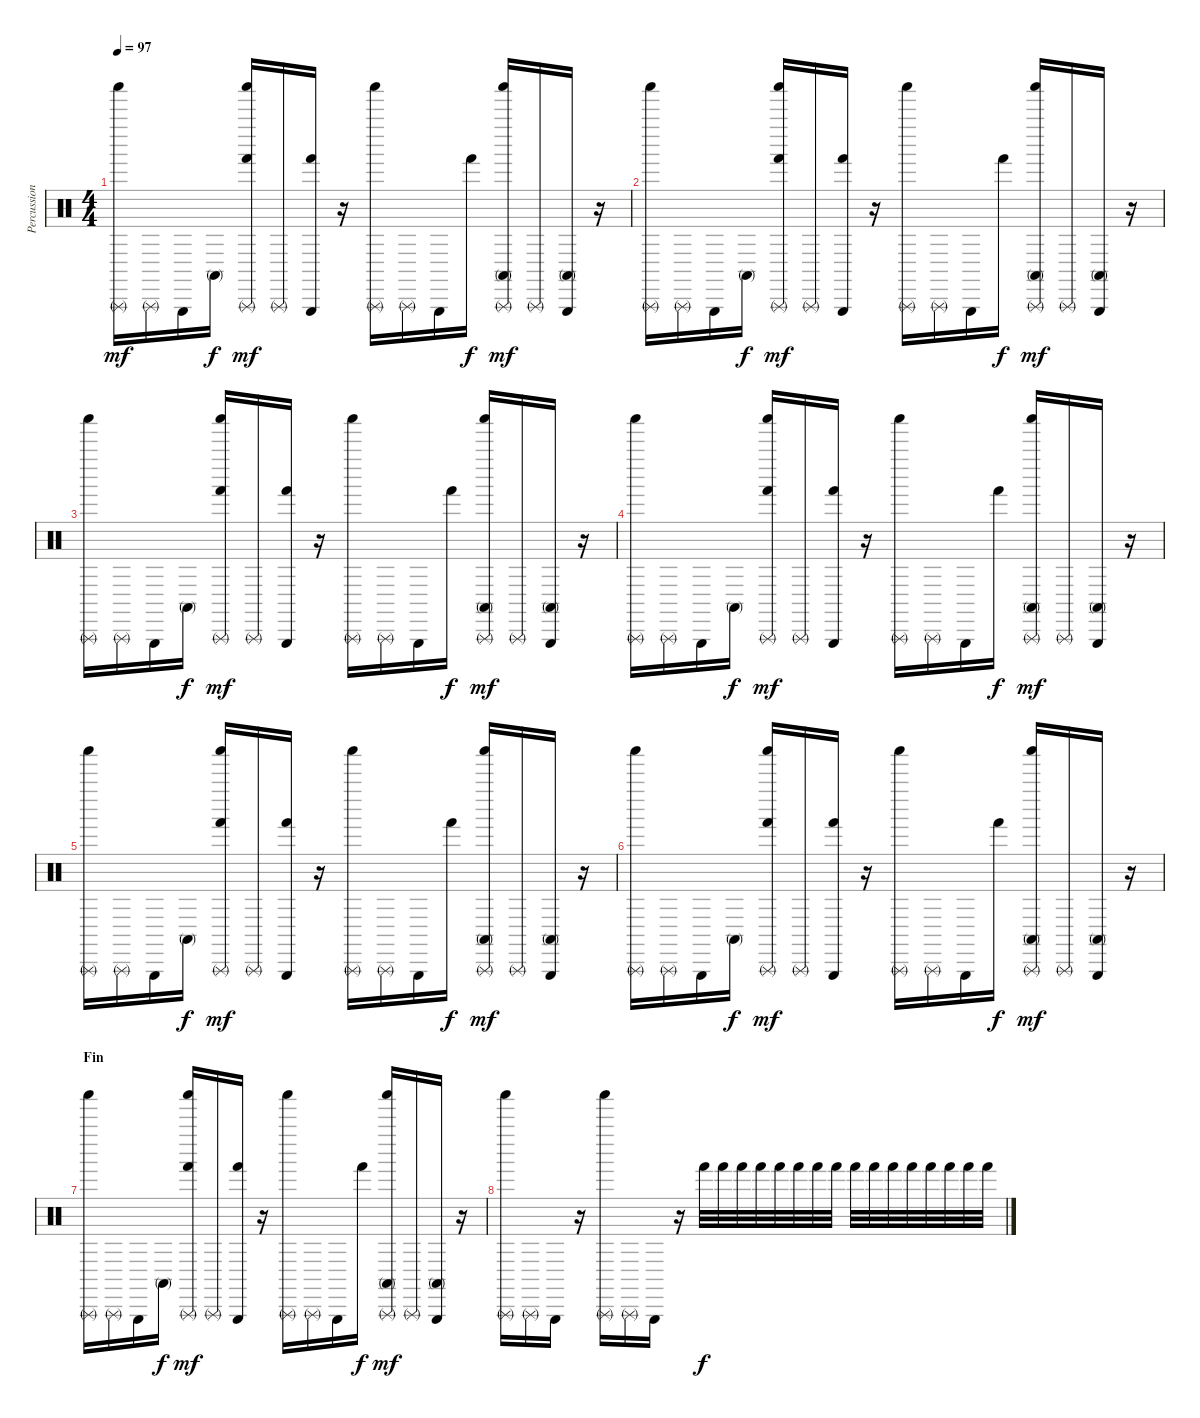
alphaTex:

\track ("Percussions" "Percussion") {instrument percussion}
\staff {score}
\articulation defaults
\ts (4 4)
\tempo 97
\clef neutral
\ks c
("Triangle (rnute)" "Shaker (hit)").16{dy mf} "Triangle (rnute)".16 "Triangle (hit)".16 "Conga high (mute)".16{dy f} ("Triangle (rnute)" "Shaker (hit)" "Hand (hit)").16{dy mf} "Triangle (rnute)".16 ("Triangle (hit)" "Hand (hit)").16 r.16 ("Triangle (rnute)" "Shaker (hit)").16 "Triangle (rnute)".16 "Triangle (hit)".16 "Hand (hit)".16{dy f} ("Triangle (rnute)" "Shaker (hit)" "Conga high (mute)").16{dy mf} "Triangle (rnute)".16 ("Triangle (hit)" "Conga high (mute)").16 r.16 |
("Triangle (rnute)" "Shaker (hit)").16 "Triangle (rnute)".16 "Triangle (hit)".16 "Conga high (mute)".16{dy f} ("Triangle (rnute)" "Shaker (hit)" "Hand (hit)").16{dy mf} "Triangle (rnute)".16 ("Triangle (hit)" "Hand (hit)").16 r.16 ("Triangle (rnute)" "Shaker (hit)").16 "Triangle (rnute)".16 "Triangle (hit)".16 "Hand (hit)".16{dy f} ("Triangle (rnute)" "Shaker (hit)" "Conga high (mute)").16{dy mf} "Triangle (rnute)".16 ("Triangle (hit)" "Conga high (mute)").16 r.16 |
("Triangle (rnute)" "Shaker (hit)").16 "Triangle (rnute)".16 "Triangle (hit)".16 "Conga high (mute)".16{dy f} ("Triangle (rnute)" "Shaker (hit)" "Hand (hit)").16{dy mf} "Triangle (rnute)".16 ("Triangle (hit)" "Hand (hit)").16 r.16 ("Triangle (rnute)" "Shaker (hit)").16 "Triangle (rnute)".16 "Triangle (hit)".16 "Hand (hit)".16{dy f} ("Triangle (rnute)" "Shaker (hit)" "Conga high (mute)").16{dy mf} "Triangle (rnute)".16 ("Triangle (hit)" "Conga high (mute)").16 r.16 |
("Triangle (rnute)" "Shaker (hit)").16 "Triangle (rnute)".16 "Triangle (hit)".16 "Conga high (mute)".16{dy f} ("Triangle (rnute)" "Shaker (hit)" "Hand (hit)").16{dy mf} "Triangle (rnute)".16 ("Triangle (hit)" "Hand (hit)").16 r.16 ("Triangle (rnute)" "Shaker (hit)").16 "Triangle (rnute)".16 "Triangle (hit)".16 "Hand (hit)".16{dy f} ("Triangle (rnute)" "Shaker (hit)" "Conga high (mute)").16{dy mf} "Triangle (rnute)".16 ("Triangle (hit)" "Conga high (mute)").16 r.16 |
("Triangle (rnute)" "Shaker (hit)").16 "Triangle (rnute)".16 "Triangle (hit)".16 "Conga high (mute)".16{dy f} ("Triangle (rnute)" "Shaker (hit)" "Hand (hit)").16{dy mf} "Triangle (rnute)".16 ("Triangle (hit)" "Hand (hit)").16 r.16 ("Triangle (rnute)" "Shaker (hit)").16 "Triangle (rnute)".16 "Triangle (hit)".16 "Hand (hit)".16{dy f} ("Triangle (rnute)" "Shaker (hit)" "Conga high (mute)").16{dy mf} "Triangle (rnute)".16 ("Triangle (hit)" "Conga high (mute)").16 r.16 |
("Triangle (rnute)" "Shaker (hit)").16 "Triangle (rnute)".16 "Triangle (hit)".16 "Conga high (mute)".16{dy f} ("Triangle (rnute)" "Shaker (hit)" "Hand (hit)").16{dy mf} "Triangle (rnute)".16 ("Triangle (hit)" "Hand (hit)").16 r.16 ("Triangle (rnute)" "Shaker (hit)").16 "Triangle (rnute)".16 "Triangle (hit)".16 "Hand (hit)".16{dy f} ("Triangle (rnute)" "Shaker (hit)" "Conga high (mute)").16{dy mf} "Triangle (rnute)".16 ("Triangle (hit)" "Conga high (mute)").16 r.16 |
\section ("" "Fin")
("Triangle (rnute)" "Shaker (hit)").16 "Triangle (rnute)".16 "Triangle (hit)".16 "Conga high (mute)".16{dy f} ("Triangle (rnute)" "Shaker (hit)" "Hand (hit)").16{dy mf} "Triangle (rnute)".16 ("Triangle (hit)" "Hand (hit)").16 r.16 ("Triangle (rnute)" "Shaker (hit)").16 "Triangle (rnute)".16 "Triangle (hit)".16 "Hand (hit)".16{dy f} ("Triangle (rnute)" "Shaker (hit)" "Conga high (mute)").16{dy mf} "Triangle (rnute)".16 ("Triangle (hit)" "Conga high (mute)").16 r.16 |
("Triangle (rnute)" "Shaker (hit)").16 "Triangle (rnute)".16 "Triangle (hit)".16 r.16 ("Triangle (rnute)" "Shaker (hit)").16 "Triangle (rnute)".16 "Triangle (hit)".16 r.16 "Hand (hit)".32{dy f} "Hand (hit)".32 "Hand (hit)".32 "Hand (hit)".32 "Hand (hit)".32 "Hand (hit)".32 "Hand (hit)".32 "Hand (hit)".32 "Hand (hit)".32 "Hand (hit)".32 "Hand (hit)".32 "Hand (hit)".32 "Hand (hit)".32 "Hand (hit)".32 "Hand (hit)".32 "Hand (hit)".32
